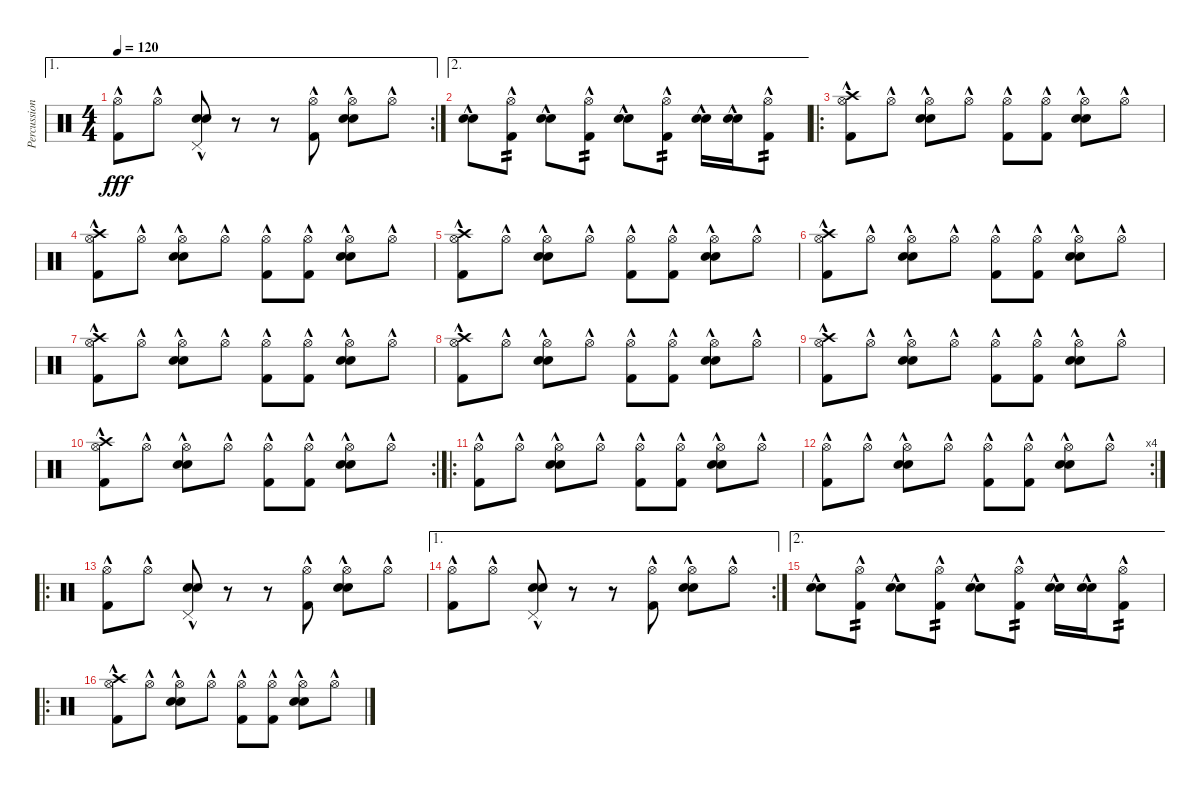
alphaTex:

\track ("Percussion" "Percussion") {instrument percussion}
\staff {score}
\articulation defaults
\ae 1
\rc 2
\ts (4 4)
\tempo 120
\clef neutral
\ks c
("Hi-Hat (open)"{hac} "Kick (hit) 2"{hac}).8{dy fff} "Hi-Hat (open)"{hac}.8 ("Electric Snare (hit)"{hac} "Snare (hit) 2"{hac} "Pedal Hi-Hat (hit)").8 r.8 r.8 ("Hi-Hat (open)"{hac} "Kick (hit) 2"{hac}).8 ("Electric Snare (hit)"{hac} "Snare (hit) 2"{hac} "Hi-Hat (open)"{hac}).8 "Hi-Hat (open)"{hac}.8 |
\ae 2
("Electric Snare (hit)"{hac} "Snare (hit) 2"{hac}).8 ("Hi-Hat (open)"{hac} "Kick (hit) 2"{hac}).8{tp 2} ("Electric Snare (hit)"{hac} "Snare (hit) 2"{hac}).8 ("Hi-Hat (open)"{hac} "Kick (hit) 2"{hac}).8{tp 2} ("Electric Snare (hit)"{hac} "Snare (hit) 2"{hac}).8 ("Hi-Hat (open)"{hac} "Kick (hit) 2"{hac}).8{tp 2} ("Electric Snare (hit)"{hac} "Snare (hit) 2"{hac}).16 ("Electric Snare (hit)"{hac} "Snare (hit) 2"{hac}).16 ("Hi-Hat (open)"{hac} "Kick (hit) 2"{hac}).8{tp 2} |
\ro
("Crash high (hit)"{hac} "Hi-Hat (open)"{hac} "Kick (hit) 2"{hac}).8 "Hi-Hat (open)"{hac}.8 ("Electric Snare (hit)"{hac} "Snare (hit) 2"{hac} "Hi-Hat (open)"{hac}).8 "Hi-Hat (open)"{hac}.8 ("Hi-Hat (open)"{hac} "Kick (hit) 2"{hac}).8 ("Hi-Hat (open)"{hac} "Kick (hit) 2"{hac}).8 ("Electric Snare (hit)"{hac} "Snare (hit) 2"{hac} "Hi-Hat (open)"{hac}).8 "Hi-Hat (open)"{hac}.8 |
("Crash high (hit)"{hac} "Hi-Hat (open)"{hac} "Kick (hit) 2"{hac}).8 "Hi-Hat (open)"{hac}.8 ("Electric Snare (hit)"{hac} "Snare (hit) 2"{hac} "Hi-Hat (open)"{hac}).8 "Hi-Hat (open)"{hac}.8 ("Hi-Hat (open)"{hac} "Kick (hit) 2"{hac}).8 ("Hi-Hat (open)"{hac} "Kick (hit) 2"{hac}).8 ("Electric Snare (hit)"{hac} "Snare (hit) 2"{hac} "Hi-Hat (open)"{hac}).8 "Hi-Hat (open)"{hac}.8 |
("Crash high (hit)"{hac} "Hi-Hat (open)"{hac} "Kick (hit) 2"{hac}).8 "Hi-Hat (open)"{hac}.8 ("Electric Snare (hit)"{hac} "Snare (hit) 2"{hac} "Hi-Hat (open)"{hac}).8 "Hi-Hat (open)"{hac}.8 ("Hi-Hat (open)"{hac} "Kick (hit) 2"{hac}).8 ("Hi-Hat (open)"{hac} "Kick (hit) 2"{hac}).8 ("Electric Snare (hit)"{hac} "Snare (hit) 2"{hac} "Hi-Hat (open)"{hac}).8 "Hi-Hat (open)"{hac}.8 |
("Crash high (hit)"{hac} "Hi-Hat (open)"{hac} "Kick (hit) 2"{hac}).8 "Hi-Hat (open)"{hac}.8 ("Electric Snare (hit)"{hac} "Snare (hit) 2"{hac} "Hi-Hat (open)"{hac}).8 "Hi-Hat (open)"{hac}.8 ("Hi-Hat (open)"{hac} "Kick (hit) 2"{hac}).8 ("Hi-Hat (open)"{hac} "Kick (hit) 2"{hac}).8 ("Electric Snare (hit)"{hac} "Snare (hit) 2"{hac} "Hi-Hat (open)"{hac}).8 "Hi-Hat (open)"{hac}.8 |
("Crash high (hit)"{hac} "Hi-Hat (open)"{hac} "Kick (hit) 2"{hac}).8 "Hi-Hat (open)"{hac}.8 ("Electric Snare (hit)"{hac} "Snare (hit) 2"{hac} "Hi-Hat (open)"{hac}).8 "Hi-Hat (open)"{hac}.8 ("Hi-Hat (open)"{hac} "Kick (hit) 2"{hac}).8 ("Hi-Hat (open)"{hac} "Kick (hit) 2"{hac}).8 ("Electric Snare (hit)"{hac} "Snare (hit) 2"{hac} "Hi-Hat (open)"{hac}).8 "Hi-Hat (open)"{hac}.8 |
("Crash high (hit)"{hac} "Hi-Hat (open)"{hac} "Kick (hit) 2"{hac}).8 "Hi-Hat (open)"{hac}.8 ("Electric Snare (hit)"{hac} "Snare (hit) 2"{hac} "Hi-Hat (open)"{hac}).8 "Hi-Hat (open)"{hac}.8 ("Hi-Hat (open)"{hac} "Kick (hit) 2"{hac}).8 ("Hi-Hat (open)"{hac} "Kick (hit) 2"{hac}).8 ("Electric Snare (hit)"{hac} "Snare (hit) 2"{hac} "Hi-Hat (open)"{hac}).8 "Hi-Hat (open)"{hac}.8 |
("Crash high (hit)"{hac} "Hi-Hat (open)"{hac} "Kick (hit) 2"{hac}).8 "Hi-Hat (open)"{hac}.8 ("Electric Snare (hit)"{hac} "Snare (hit) 2"{hac} "Hi-Hat (open)"{hac}).8 "Hi-Hat (open)"{hac}.8 ("Hi-Hat (open)"{hac} "Kick (hit) 2"{hac}).8 ("Hi-Hat (open)"{hac} "Kick (hit) 2"{hac}).8 ("Electric Snare (hit)"{hac} "Snare (hit) 2"{hac} "Hi-Hat (open)"{hac}).8 "Hi-Hat (open)"{hac}.8 |
\rc 2
("Crash high (hit)"{hac} "Hi-Hat (open)"{hac} "Kick (hit) 2"{hac}).8 "Hi-Hat (open)"{hac}.8 ("Electric Snare (hit)"{hac} "Snare (hit) 2"{hac} "Hi-Hat (open)"{hac}).8 "Hi-Hat (open)"{hac}.8 ("Hi-Hat (open)"{hac} "Kick (hit) 2"{hac}).8 ("Hi-Hat (open)"{hac} "Kick (hit) 2"{hac}).8 ("Electric Snare (hit)"{hac} "Snare (hit) 2"{hac} "Hi-Hat (open)"{hac}).8 "Hi-Hat (open)"{hac}.8 |
\ro
("Hi-Hat (open)"{hac} "Kick (hit) 2"{hac}).8 "Hi-Hat (open)"{hac}.8 ("Electric Snare (hit)"{hac} "Snare (hit) 2"{hac} "Hi-Hat (open)"{hac}).8 "Hi-Hat (open)"{hac}.8 ("Hi-Hat (open)"{hac} "Kick (hit) 2"{hac}).8 ("Hi-Hat (open)"{hac} "Kick (hit) 2"{hac}).8 ("Electric Snare (hit)"{hac} "Snare (hit) 2"{hac} "Hi-Hat (open)"{hac}).8 "Hi-Hat (open)"{hac}.8 |
\rc 4
("Hi-Hat (open)"{hac} "Kick (hit) 2"{hac}).8 "Hi-Hat (open)"{hac}.8 ("Electric Snare (hit)"{hac} "Snare (hit) 2"{hac} "Hi-Hat (open)"{hac}).8 "Hi-Hat (open)"{hac}.8 ("Hi-Hat (open)"{hac} "Kick (hit) 2"{hac}).8 ("Hi-Hat (open)"{hac} "Kick (hit) 2"{hac}).8 ("Electric Snare (hit)"{hac} "Snare (hit) 2"{hac} "Hi-Hat (open)"{hac}).8 "Hi-Hat (open)"{hac}.8 |
\ro
("Hi-Hat (open)"{hac} "Kick (hit) 2"{hac}).8 "Hi-Hat (open)"{hac}.8 ("Electric Snare (hit)"{hac} "Snare (hit) 2"{hac} "Pedal Hi-Hat (hit)").8 r.8 r.8 ("Hi-Hat (open)"{hac} "Kick (hit) 2"{hac}).8 ("Electric Snare (hit)"{hac} "Snare (hit) 2"{hac} "Hi-Hat (open)"{hac}).8 "Hi-Hat (open)"{hac}.8 |
\ae 1
\rc 2
("Hi-Hat (open)"{hac} "Kick (hit) 2"{hac}).8 "Hi-Hat (open)"{hac}.8 ("Electric Snare (hit)"{hac} "Snare (hit) 2"{hac} "Pedal Hi-Hat (hit)").8 r.8 r.8 ("Hi-Hat (open)"{hac} "Kick (hit) 2"{hac}).8 ("Electric Snare (hit)"{hac} "Snare (hit) 2"{hac} "Hi-Hat (open)"{hac}).8 "Hi-Hat (open)"{hac}.8 |
\ae 2
("Electric Snare (hit)"{hac} "Snare (hit) 2"{hac}).8 ("Hi-Hat (open)"{hac} "Kick (hit) 2"{hac}).8{tp 2} ("Electric Snare (hit)"{hac} "Snare (hit) 2"{hac}).8 ("Hi-Hat (open)"{hac} "Kick (hit) 2"{hac}).8{tp 2} ("Electric Snare (hit)"{hac} "Snare (hit) 2"{hac}).8 ("Hi-Hat (open)"{hac} "Kick (hit) 2"{hac}).8{tp 2} ("Electric Snare (hit)"{hac} "Snare (hit) 2"{hac}).16 ("Electric Snare (hit)"{hac} "Snare (hit) 2"{hac}).16 ("Hi-Hat (open)"{hac} "Kick (hit) 2"{hac}).8{tp 2} |
\ro
("Crash high (hit)"{hac} "Hi-Hat (open)"{hac} "Kick (hit) 2"{hac}).8 "Hi-Hat (open)"{hac}.8 ("Electric Snare (hit)"{hac} "Snare (hit) 2"{hac} "Hi-Hat (open)"{hac}).8 "Hi-Hat (open)"{hac}.8 ("Hi-Hat (open)"{hac} "Kick (hit) 2"{hac}).8 ("Hi-Hat (open)"{hac} "Kick (hit) 2"{hac}).8 ("Electric Snare (hit)"{hac} "Snare (hit) 2"{hac} "Hi-Hat (open)"{hac}).8 "Hi-Hat (open)"{hac}.8
